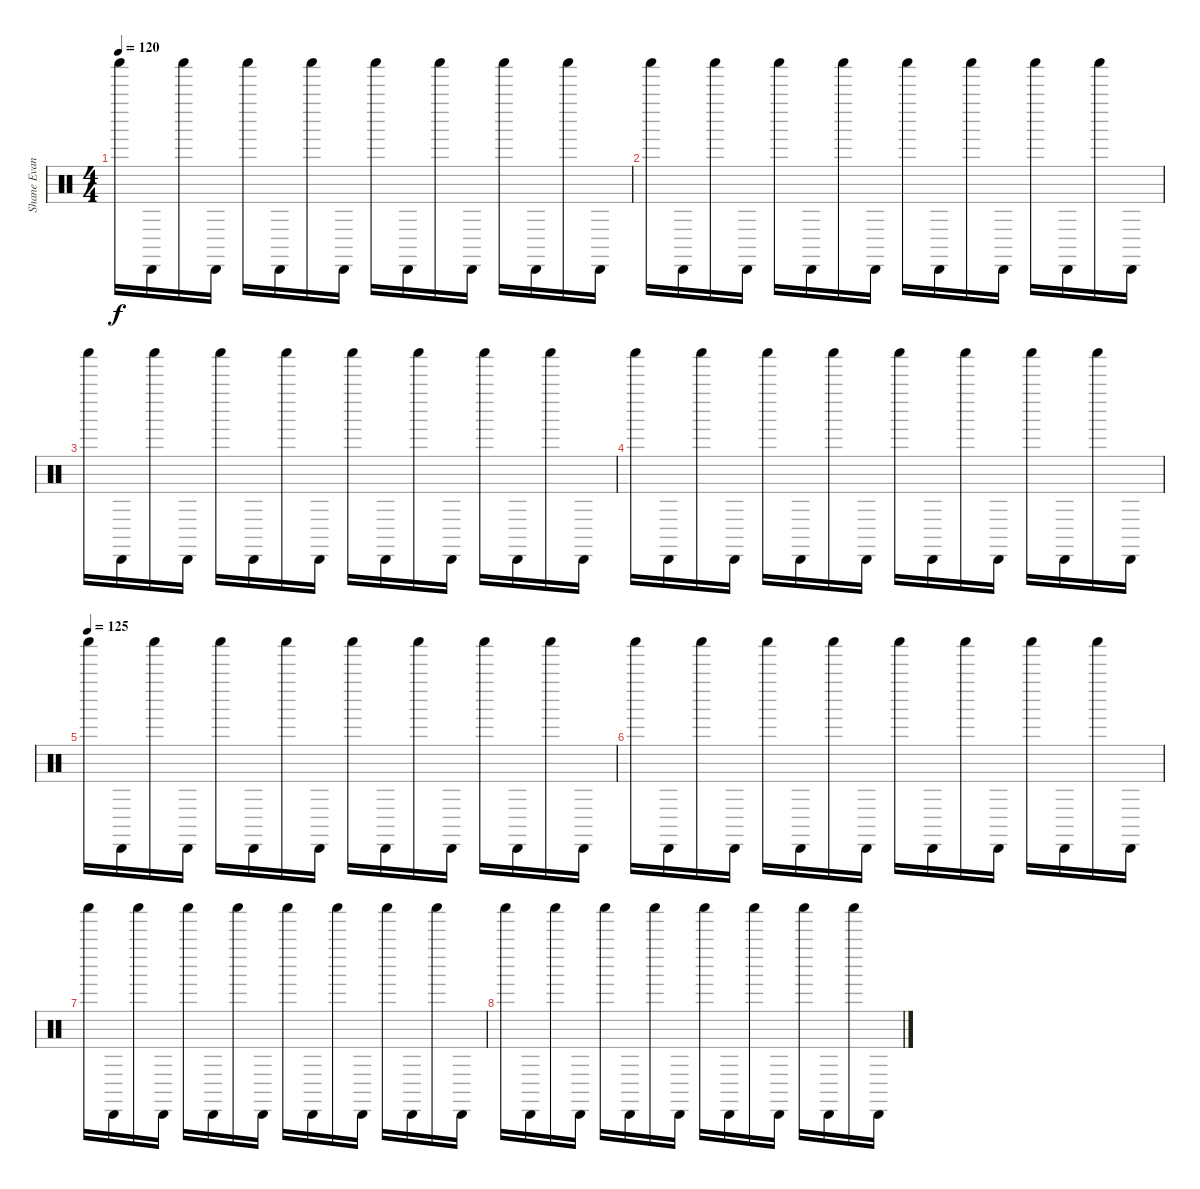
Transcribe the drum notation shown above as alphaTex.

\track ("Shane Evans" "Shane Evan") {instrument percussion}
\staff {score}
\articulation defaults
\ts (4 4)
\tempo 120
\clef neutral
\ks c "Shaker (hit)".16{dy f} "Cabasa (hit)".16 "Shaker (hit)".16 "Cabasa (hit)".16 "Shaker (hit)".16 "Cabasa (hit)".16 "Shaker (hit)".16 "Cabasa (hit)".16 "Shaker (hit)".16 "Cabasa (hit)".16 "Shaker (hit)".16 "Cabasa (hit)".16 "Shaker (hit)".16 "Cabasa (hit)".16 "Shaker (hit)".16 "Cabasa (hit)".16
|
"Shaker (hit)".16 "Cabasa (hit)".16 "Shaker (hit)".16 "Cabasa (hit)".16 "Shaker (hit)".16 "Cabasa (hit)".16 "Shaker (hit)".16 "Cabasa (hit)".16 "Shaker (hit)".16 "Cabasa (hit)".16 "Shaker (hit)".16 "Cabasa (hit)".16 "Shaker (hit)".16 "Cabasa (hit)".16 "Shaker (hit)".16 "Cabasa (hit)".16 |
"Shaker (hit)".16 "Cabasa (hit)".16 "Shaker (hit)".16 "Cabasa (hit)".16 "Shaker (hit)".16 "Cabasa (hit)".16 "Shaker (hit)".16 "Cabasa (hit)".16 "Shaker (hit)".16 "Cabasa (hit)".16 "Shaker (hit)".16 "Cabasa (hit)".16 "Shaker (hit)".16 "Cabasa (hit)".16 "Shaker (hit)".16 "Cabasa (hit)".16 |
"Shaker (hit)".16 "Cabasa (hit)".16 "Shaker (hit)".16 "Cabasa (hit)".16 "Shaker (hit)".16 "Cabasa (hit)".16 "Shaker (hit)".16 "Cabasa (hit)".16 "Shaker (hit)".16 "Cabasa (hit)".16 "Shaker (hit)".16 "Cabasa (hit)".16 "Shaker (hit)".16 "Cabasa (hit)".16 "Shaker (hit)".16 "Cabasa (hit)".16 |
\tempo (125)
"Shaker (hit)".16 "Cabasa (hit)".16 "Shaker (hit)".16 "Cabasa (hit)".16 "Shaker (hit)".16 "Cabasa (hit)".16 "Shaker (hit)".16 "Cabasa (hit)".16 "Shaker (hit)".16 "Cabasa (hit)".16 "Shaker (hit)".16 "Cabasa (hit)".16 "Shaker (hit)".16 "Cabasa (hit)".16 "Shaker (hit)".16 "Cabasa (hit)".16 |
"Shaker (hit)".16 "Cabasa (hit)".16 "Shaker (hit)".16 "Cabasa (hit)".16 "Shaker (hit)".16 "Cabasa (hit)".16 "Shaker (hit)".16 "Cabasa (hit)".16 "Shaker (hit)".16 "Cabasa (hit)".16 "Shaker (hit)".16 "Cabasa (hit)".16 "Shaker (hit)".16 "Cabasa (hit)".16 "Shaker (hit)".16 "Cabasa (hit)".16 |
"Shaker (hit)".16 "Cabasa (hit)".16 "Shaker (hit)".16 "Cabasa (hit)".16 "Shaker (hit)".16 "Cabasa (hit)".16 "Shaker (hit)".16 "Cabasa (hit)".16 "Shaker (hit)".16 "Cabasa (hit)".16 "Shaker (hit)".16 "Cabasa (hit)".16 "Shaker (hit)".16 "Cabasa (hit)".16 "Shaker (hit)".16 "Cabasa (hit)".16 |
"Shaker (hit)".16 "Cabasa (hit)".16 "Shaker (hit)".16 "Cabasa (hit)".16 "Shaker (hit)".16 "Cabasa (hit)".16 "Shaker (hit)".16 "Cabasa (hit)".16 "Shaker (hit)".16 "Cabasa (hit)".16 "Shaker (hit)".16 "Cabasa (hit)".16 "Shaker (hit)".16 "Cabasa (hit)".16 "Shaker (hit)".16 "Cabasa (hit)".16
